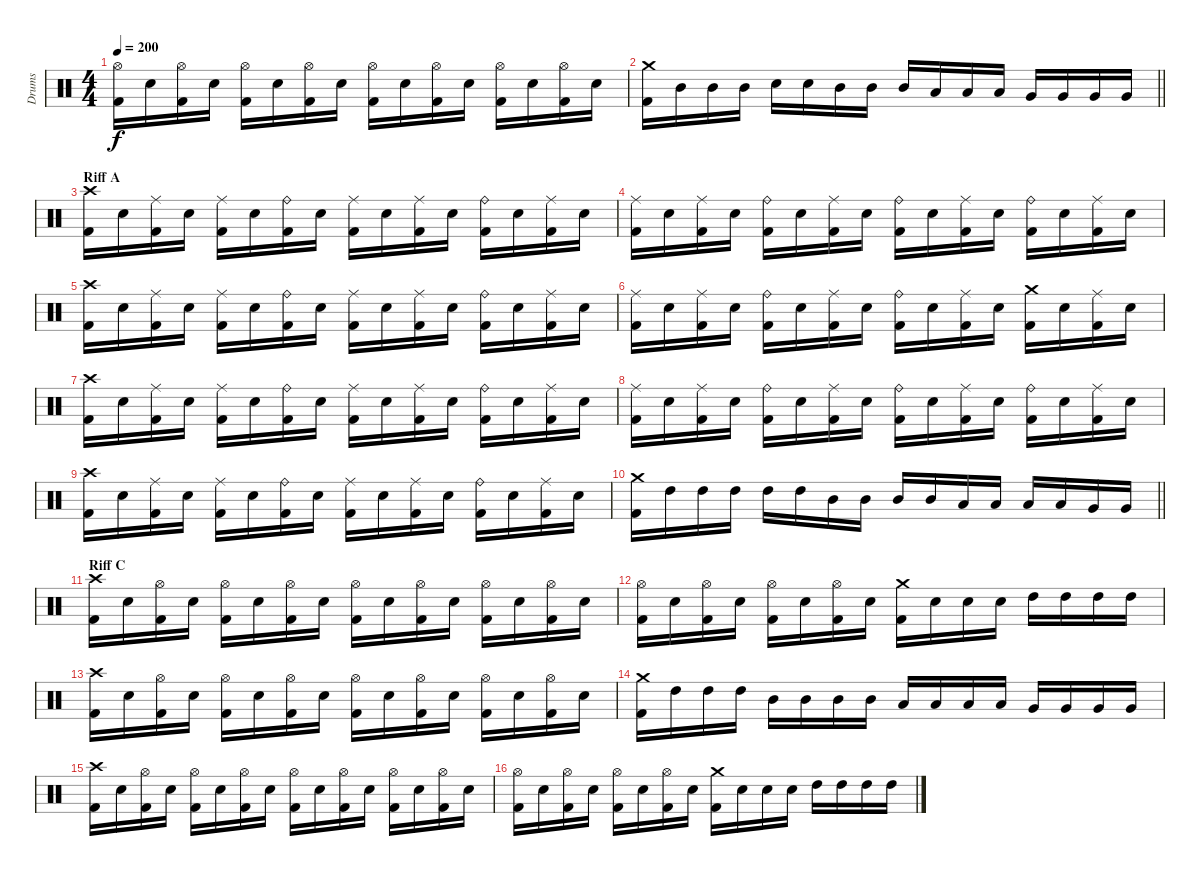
\track ("Drums" "Drums") {instrument percussion}
\staff {score}
\articulation defaults
\ts (4 4)
\tempo 200
\clef neutral
\ks c
("Hi-Hat (open)" "Kick (hit) 2").16{dy f} "Electric Snare (hit)".16 ("Hi-Hat (open)" "Kick (hit) 2").16 "Electric Snare (hit)".16 ("Hi-Hat (open)" "Kick (hit) 2").16 "Electric Snare (hit)".16 ("Hi-Hat (open)" "Kick (hit) 2").16 "Electric Snare (hit)".16 ("Hi-Hat (open)" "Kick (hit) 2").16 "Electric Snare (hit)".16 ("Hi-Hat (open)" "Kick (hit) 2").16 "Electric Snare (hit)".16 ("Hi-Hat (open)" "Kick (hit) 2").16 "Electric Snare (hit)".16 ("Hi-Hat (open)" "Kick (hit) 2").16 "Electric Snare (hit)".16 |
\barLineRight lightlight
("Crash medium (hit)" "Kick (hit) 2").16 "Mid Tom (hit)".16 "Mid Tom (hit)".16 "Mid Tom (hit)".16 "Electric Snare (hit)".16 "Electric Snare (hit)".16 "Mid Tom (hit)".16 "Mid Tom (hit)".16 "Mid Tom (hit)".16 "Low Tom (hit)".16 "Low Tom (hit)".16 "Low Tom (hit)".16 "Very Low Tom (hit)".16 "Very Low Tom (hit)".16 "Very Low Tom (hit)".16 "Very Low Tom (hit)".16 |
\section ("" "Riff A")
("Crash high (hit)" "Kick (hit) 2").16 "Electric Snare (hit)".16 ("Ride (middle)" "Kick (hit) 2").16 "Electric Snare (hit)".16 ("Ride (middle)" "Kick (hit) 2").16 "Electric Snare (hit)".16 ("Ride (bell)" "Kick (hit) 2").16 "Electric Snare (hit)".16 ("Ride (middle)" "Kick (hit) 2").16 "Electric Snare (hit)".16 ("Ride (middle)" "Kick (hit) 2").16 "Electric Snare (hit)".16 ("Ride (bell)" "Kick (hit) 2").16 "Electric Snare (hit)".16 ("Ride (middle)" "Kick (hit) 2").16 "Electric Snare (hit)".16 |
("Ride (middle)" "Kick (hit) 2").16 "Electric Snare (hit)".16 ("Ride (middle)" "Kick (hit) 2").16 "Electric Snare (hit)".16 ("Ride (bell)" "Kick (hit) 2").16 "Electric Snare (hit)".16 ("Ride (middle)" "Kick (hit) 2").16 "Electric Snare (hit)".16 ("Ride (bell)" "Kick (hit) 2").16 "Electric Snare (hit)".16 ("Ride (middle)" "Kick (hit) 2").16 "Electric Snare (hit)".16 ("Ride (bell)" "Kick (hit) 2").16 "Electric Snare (hit)".16 ("Ride (middle)" "Kick (hit) 2").16 "Electric Snare (hit)".16 |
("Crash high (hit)" "Kick (hit) 2").16 "Electric Snare (hit)".16 ("Ride (middle)" "Kick (hit) 2").16 "Electric Snare (hit)".16 ("Ride (middle)" "Kick (hit) 2").16 "Electric Snare (hit)".16 ("Ride (bell)" "Kick (hit) 2").16 "Electric Snare (hit)".16 ("Ride (middle)" "Kick (hit) 2").16 "Electric Snare (hit)".16 ("Ride (middle)" "Kick (hit) 2").16 "Electric Snare (hit)".16 ("Ride (bell)" "Kick (hit) 2").16 "Electric Snare (hit)".16 ("Ride (middle)" "Kick (hit) 2").16 "Electric Snare (hit)".16 |
("Ride (middle)" "Kick (hit) 2").16 "Electric Snare (hit)".16 ("Ride (middle)" "Kick (hit) 2").16 "Electric Snare (hit)".16 ("Ride (bell)" "Kick (hit) 2").16 "Electric Snare (hit)".16 ("Ride (middle)" "Kick (hit) 2").16 "Electric Snare (hit)".16 ("Ride (bell)" "Kick (hit) 2").16 "Electric Snare (hit)".16 ("Ride (middle)" "Kick (hit) 2").16 "Electric Snare (hit)".16 ("Crash medium (hit)" "Kick (hit) 2").16 "Electric Snare (hit)".16 ("Ride (middle)" "Kick (hit) 2").16 "Electric Snare (hit)".16 |
("Crash high (hit)" "Kick (hit) 2").16 "Electric Snare (hit)".16 ("Ride (middle)" "Kick (hit) 2").16 "Electric Snare (hit)".16 ("Ride (middle)" "Kick (hit) 2").16 "Electric Snare (hit)".16 ("Ride (bell)" "Kick (hit) 2").16 "Electric Snare (hit)".16 ("Ride (middle)" "Kick (hit) 2").16 "Electric Snare (hit)".16 ("Ride (middle)" "Kick (hit) 2").16 "Electric Snare (hit)".16 ("Ride (bell)" "Kick (hit) 2").16 "Electric Snare (hit)".16 ("Ride (middle)" "Kick (hit) 2").16 "Electric Snare (hit)".16 |
("Ride (middle)" "Kick (hit) 2").16 "Electric Snare (hit)".16 ("Ride (middle)" "Kick (hit) 2").16 "Electric Snare (hit)".16 ("Ride (bell)" "Kick (hit) 2").16 "Electric Snare (hit)".16 ("Ride (middle)" "Kick (hit) 2").16 "Electric Snare (hit)".16 ("Ride (bell)" "Kick (hit) 2").16 "Electric Snare (hit)".16 ("Ride (middle)" "Kick (hit) 2").16 "Electric Snare (hit)".16 ("Ride (bell)" "Kick (hit) 2").16 "Electric Snare (hit)".16 ("Ride (middle)" "Kick (hit) 2").16 "Electric Snare (hit)".16 |
("Crash high (hit)" "Kick (hit) 2").16 "Electric Snare (hit)".16 ("Ride (middle)" "Kick (hit) 2").16 "Electric Snare (hit)".16 ("Ride (middle)" "Kick (hit) 2").16 "Electric Snare (hit)".16 ("Ride (bell)" "Kick (hit) 2").16 "Electric Snare (hit)".16 ("Ride (middle)" "Kick (hit) 2").16 "Electric Snare (hit)".16 ("Ride (middle)" "Kick (hit) 2").16 "Electric Snare (hit)".16 ("Ride (bell)" "Kick (hit) 2").16 "Electric Snare (hit)".16 ("Ride (middle)" "Kick (hit) 2").16 "Electric Snare (hit)".16 |
\barLineRight lightlight
("Crash medium (hit)" "Kick (hit) 2").16 "High Tom (hit)".16 "High Tom (hit)".16 "High Tom (hit)".16 "High Tom (hit)".16 "High Tom (hit)".16 "Mid Tom (hit)".16 "Mid Tom (hit)".16 "Mid Tom (hit)".16 "Mid Tom (hit)".16 "Low Tom (hit)".16 "Low Tom (hit)".16 "Low Tom (hit)".16 "Low Tom (hit)".16 "Very Low Tom (hit)".16 "Very Low Tom (hit)".16 |
\section ("" "Riff C")
("Crash high (hit)" "Kick (hit) 2").16 "Electric Snare (hit)".16 ("Hi-Hat (open)" "Kick (hit) 2").16 "Electric Snare (hit)".16 ("Hi-Hat (open)" "Kick (hit) 2").16 "Electric Snare (hit)".16 ("Hi-Hat (open)" "Kick (hit) 2").16 "Electric Snare (hit)".16 ("Hi-Hat (open)" "Kick (hit) 2").16 "Electric Snare (hit)".16 ("Hi-Hat (open)" "Kick (hit) 2").16 "Electric Snare (hit)".16 ("Hi-Hat (open)" "Kick (hit) 2").16 "Electric Snare (hit)".16 ("Hi-Hat (open)" "Kick (hit) 2").16 "Electric Snare (hit)".16 |
("Hi-Hat (open)" "Kick (hit) 2").16 "Electric Snare (hit)".16 ("Hi-Hat (open)" "Kick (hit) 2").16 "Electric Snare (hit)".16 ("Hi-Hat (open)" "Kick (hit) 2").16 "Electric Snare (hit)".16 ("Hi-Hat (open)" "Kick (hit) 2").16 "Electric Snare (hit)".16 ("Crash medium (hit)" "Kick (hit) 2").16 "Electric Snare (hit)".16 "Electric Snare (hit)".16 "Electric Snare (hit)".16 "High Tom (hit)".16 "High Tom (hit)".16 "High Tom (hit)".16 "High Tom (hit)".16 |
("Crash high (hit)" "Kick (hit) 2").16 "Electric Snare (hit)".16 ("Hi-Hat (open)" "Kick (hit) 2").16 "Electric Snare (hit)".16 ("Hi-Hat (open)" "Kick (hit) 2").16 "Electric Snare (hit)".16 ("Hi-Hat (open)" "Kick (hit) 2").16 "Electric Snare (hit)".16 ("Hi-Hat (open)" "Kick (hit) 2").16 "Electric Snare (hit)".16 ("Hi-Hat (open)" "Kick (hit) 2").16 "Electric Snare (hit)".16 ("Hi-Hat (open)" "Kick (hit) 2").16 "Electric Snare (hit)".16 ("Hi-Hat (open)" "Kick (hit) 2").16 "Electric Snare (hit)".16 |
("Crash medium (hit)" "Kick (hit) 2").16 "High Tom (hit)".16 "High Tom (hit)".16 "High Tom (hit)".16 "Mid Tom (hit)".16 "Mid Tom (hit)".16 "Mid Tom (hit)".16 "Mid Tom (hit)".16 "Low Tom (hit)".16 "Low Tom (hit)".16 "Low Tom (hit)".16 "Low Tom (hit)".16 "Very Low Tom (hit)".16 "Very Low Tom (hit)".16 "Very Low Tom (hit)".16 "Very Low Tom (hit)".16 |
("Crash high (hit)" "Kick (hit) 2").16 "Electric Snare (hit)".16 ("Hi-Hat (open)" "Kick (hit) 2").16 "Electric Snare (hit)".16 ("Hi-Hat (open)" "Kick (hit) 2").16 "Electric Snare (hit)".16 ("Hi-Hat (open)" "Kick (hit) 2").16 "Electric Snare (hit)".16 ("Hi-Hat (open)" "Kick (hit) 2").16 "Electric Snare (hit)".16 ("Hi-Hat (open)" "Kick (hit) 2").16 "Electric Snare (hit)".16 ("Hi-Hat (open)" "Kick (hit) 2").16 "Electric Snare (hit)".16 ("Hi-Hat (open)" "Kick (hit) 2").16 "Electric Snare (hit)".16 |
("Hi-Hat (open)" "Kick (hit) 2").16 "Electric Snare (hit)".16 ("Hi-Hat (open)" "Kick (hit) 2").16 "Electric Snare (hit)".16 ("Hi-Hat (open)" "Kick (hit) 2").16 "Electric Snare (hit)".16 ("Hi-Hat (open)" "Kick (hit) 2").16 "Electric Snare (hit)".16 ("Crash medium (hit)" "Kick (hit) 2").16 "Electric Snare (hit)".16 "Electric Snare (hit)".16 "Electric Snare (hit)".16 "High Tom (hit)".16 "High Tom (hit)".16 "High Tom (hit)".16 "High Tom (hit)".16
